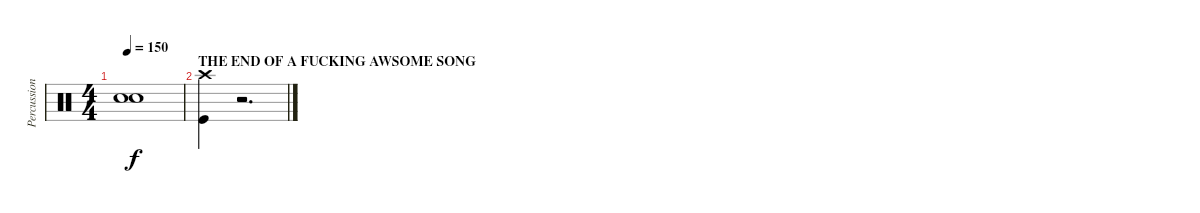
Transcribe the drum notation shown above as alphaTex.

\track ("Percussion" "Percussion") {instrument percussion}
\staff {score}
\articulation defaults
\ts (4 4)
\tempo 150
\clef neutral
\ks c
("Snare (hit)"{t} "Snare (hit)"{t}).1{dy f} |
\section ("" "THE END OF A FUCKING AWSOME SONG")
("Crash high (hit)" "Kick (hit)").4 r.2{d}
